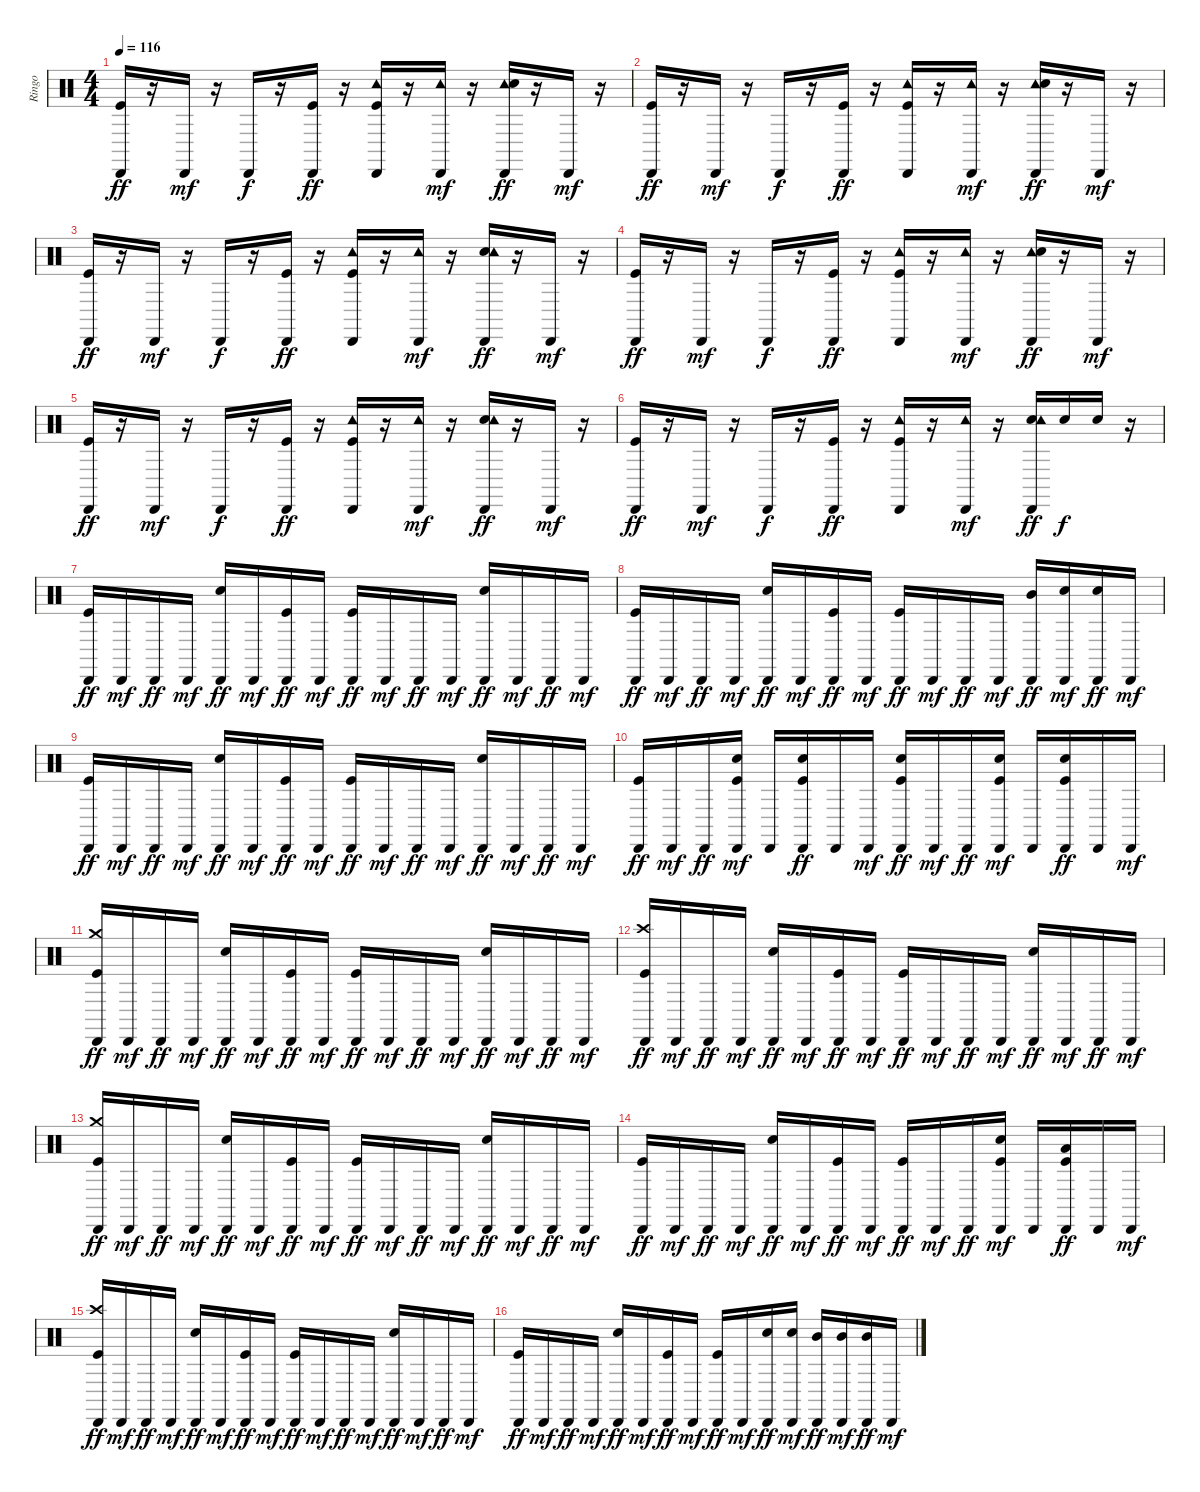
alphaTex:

\track ("Ringo" "Ringo") {instrument percussion}
\staff {score}
\articulation defaults
\ts (4 4)
\tempo 116
\clef neutral
\ks c
("Cabasa (hit)" "Kick (hit)").16{dy ff} r.16 "Cabasa (hit)".16{dy mf} r.16 "Cabasa (hit)".16{dy f} r.16 ("Cabasa (hit)" "Kick (hit)").16{dy ff} r.16 ("Cabasa (hit)" "Kick (hit)" "Tambourine (hit)").16 r.16 ("Cabasa (hit)" "Tambourine (hit)").16{dy mf} r.16 ("Cabasa (hit)" "Tambourine (hit)" "Snare (hit) 2").16{dy ff} r.16 "Cabasa (hit)".16{dy mf} r.16 |
("Cabasa (hit)" "Kick (hit)").16{dy ff} r.16 "Cabasa (hit)".16{dy mf} r.16 "Cabasa (hit)".16{dy f} r.16 ("Cabasa (hit)" "Kick (hit)").16{dy ff} r.16 ("Cabasa (hit)" "Kick (hit)" "Tambourine (hit)").16 r.16 ("Cabasa (hit)" "Tambourine (hit)").16{dy mf} r.16 ("Cabasa (hit)" "Tambourine (hit)" "Snare (hit) 2").16{dy ff} r.16 "Cabasa (hit)".16{dy mf} r.16 |
("Cabasa (hit)" "Kick (hit)").16{dy ff} r.16 "Cabasa (hit)".16{dy mf} r.16 "Cabasa (hit)".16{dy f} r.16 ("Cabasa (hit)" "Kick (hit)").16{dy ff} r.16 ("Cabasa (hit)" "Kick (hit)" "Tambourine (hit)").16 r.16 ("Cabasa (hit)" "Tambourine (hit)").16{dy mf} r.16 ("Cabasa (hit)" "Snare (hit) 2" "Tambourine (hit)").16{dy ff} r.16 "Cabasa (hit)".16{dy mf} r.16 |
("Cabasa (hit)" "Kick (hit)").16{dy ff} r.16 "Cabasa (hit)".16{dy mf} r.16 "Cabasa (hit)".16{dy f} r.16 ("Cabasa (hit)" "Kick (hit)").16{dy ff} r.16 ("Cabasa (hit)" "Tambourine (hit)" "Kick (hit)").16 r.16 ("Cabasa (hit)" "Tambourine (hit)").16{dy mf} r.16 ("Cabasa (hit)" "Tambourine (hit)" "Snare (hit) 2").16{dy ff} r.16 "Cabasa (hit)".16{dy mf} r.16 |
("Cabasa (hit)" "Kick (hit)").16{dy ff} r.16 "Cabasa (hit)".16{dy mf} r.16 "Cabasa (hit)".16{dy f} r.16 ("Cabasa (hit)" "Kick (hit)").16{dy ff} r.16 ("Cabasa (hit)" "Tambourine (hit)" "Kick (hit)").16 r.16 ("Cabasa (hit)" "Tambourine (hit)").16{dy mf} r.16 ("Cabasa (hit)" "Snare (hit) 2" "Tambourine (hit)").16{dy ff} r.16 "Cabasa (hit)".16{dy mf} r.16 |
("Cabasa (hit)" "Kick (hit)").16{dy ff} r.16 "Cabasa (hit)".16{dy mf} r.16 "Cabasa (hit)".16{dy f} r.16 ("Cabasa (hit)" "Kick (hit)").16{dy ff} r.16 ("Cabasa (hit)" "Tambourine (hit)" "Kick (hit)").16 r.16 ("Cabasa (hit)" "Tambourine (hit)").16{dy mf} r.16 ("Cabasa (hit)" "Snare (hit) 2" "Tambourine (hit)").16{dy ff} "Snare (hit) 2".16{dy f} "Snare (hit) 2".16 r.16 |
("Cabasa (hit)" "Kick (hit)").16{dy ff} "Cabasa (hit)".16{dy mf} "Cabasa (hit)".16{dy ff} "Cabasa (hit)".16{dy mf} ("Cabasa (hit)" "Snare (hit) 2").16{dy ff} "Cabasa (hit)".16{dy mf} ("Cabasa (hit)" "Kick (hit)").16{dy ff} "Cabasa (hit)".16{dy mf} ("Cabasa (hit)" "Kick (hit)").16{dy ff} "Cabasa (hit)".16{dy mf} "Cabasa (hit)".16{dy ff} "Cabasa (hit)".16{dy mf} ("Cabasa (hit)" "Snare (hit) 2").16{dy ff} "Cabasa (hit)".16{dy mf} "Cabasa (hit)".16{dy ff} "Cabasa (hit)".16{dy mf} |
("Cabasa (hit)" "Kick (hit)").16{dy ff} "Cabasa (hit)".16{dy mf} "Cabasa (hit)".16{dy ff} "Cabasa (hit)".16{dy mf} ("Cabasa (hit)" "Snare (hit) 2").16{dy ff} "Cabasa (hit)".16{dy mf} ("Cabasa (hit)" "Kick (hit)").16{dy ff} "Cabasa (hit)".16{dy mf} ("Cabasa (hit)" "Kick (hit)").16{dy ff} "Cabasa (hit)".16{dy mf} "Cabasa (hit)".16{dy ff} "Cabasa (hit)".16{dy mf} ("Cabasa (hit)" "Mid Tom (hit)").16{dy ff} ("Cabasa (hit)" "Snare (hit) 2").16{dy mf} ("Cabasa (hit)" "Snare (hit) 2").16{dy ff} "Cabasa (hit)".16{dy mf} |
("Cabasa (hit)" "Kick (hit)").16{dy ff} "Cabasa (hit)".16{dy mf} "Cabasa (hit)".16{dy ff} "Cabasa (hit)".16{dy mf} ("Cabasa (hit)" "Snare (hit) 2").16{dy ff} "Cabasa (hit)".16{dy mf} ("Cabasa (hit)" "Kick (hit)").16{dy ff} "Cabasa (hit)".16{dy mf} ("Cabasa (hit)" "Kick (hit)").16{dy ff} "Cabasa (hit)".16{dy mf} "Cabasa (hit)".16{dy ff} "Cabasa (hit)".16{dy mf} ("Cabasa (hit)" "Snare (hit) 2").16{dy ff} "Cabasa (hit)".16{dy mf} "Cabasa (hit)".16{dy ff} "Cabasa (hit)".16{dy mf} |
("Cabasa (hit)" "Kick (hit)").16{dy ff} "Cabasa (hit)".16{dy mf} "Cabasa (hit)".16{dy ff} ("Kick (hit)" "Snare (hit) 2" "Cabasa (hit)").16{dy mf} "Cabasa (hit)".16 ("Cabasa (hit)" "Kick (hit)" "Snare (hit) 2").16{dy ff} "Cabasa (hit)".16 "Cabasa (hit)".16{dy mf} ("Cabasa (hit)" "Snare (hit) 2" "Kick (hit)").16{dy ff} "Cabasa (hit)".16{dy mf} "Cabasa (hit)".16{dy ff} ("Kick (hit)" "Snare (hit) 2" "Cabasa (hit)").16{dy mf} "Cabasa (hit)".16 ("Cabasa (hit)" "Kick (hit)" "Snare (hit) 2").16{dy ff} "Cabasa (hit)".16 "Cabasa (hit)".16{dy mf} |
("Cabasa (hit)" "Kick (hit)" "Crash medium (hit)").16{dy ff} "Cabasa (hit)".16{dy mf} "Cabasa (hit)".16{dy ff} "Cabasa (hit)".16{dy mf} ("Cabasa (hit)" "Snare (hit) 2").16{dy ff} "Cabasa (hit)".16{dy mf} ("Cabasa (hit)" "Kick (hit)").16{dy ff} "Cabasa (hit)".16{dy mf} ("Cabasa (hit)" "Kick (hit)").16{dy ff} "Cabasa (hit)".16{dy mf} "Cabasa (hit)".16{dy ff} "Cabasa (hit)".16{dy mf} ("Cabasa (hit)" "Snare (hit) 2").16{dy ff} "Cabasa (hit)".16{dy mf} "Cabasa (hit)".16{dy ff} "Cabasa (hit)".16{dy mf} |
("Cabasa (hit)" "Crash high (hit)" "Kick (hit)").16{dy ff} "Cabasa (hit)".16{dy mf} "Cabasa (hit)".16{dy ff} "Cabasa (hit)".16{dy mf} ("Cabasa (hit)" "Snare (hit) 2").16{dy ff} "Cabasa (hit)".16{dy mf} ("Cabasa (hit)" "Kick (hit)").16{dy ff} "Cabasa (hit)".16{dy mf} ("Cabasa (hit)" "Kick (hit)").16{dy ff} "Cabasa (hit)".16{dy mf} "Cabasa (hit)".16{dy ff} "Cabasa (hit)".16{dy mf} ("Cabasa (hit)" "Snare (hit) 2").16{dy ff} "Cabasa (hit)".16{dy mf} "Cabasa (hit)".16{dy ff} "Cabasa (hit)".16{dy mf} |
("Cabasa (hit)" "Crash medium (hit)" "Kick (hit)").16{dy ff} "Cabasa (hit)".16{dy mf} "Cabasa (hit)".16{dy ff} "Cabasa (hit)".16{dy mf} ("Cabasa (hit)" "Snare (hit) 2").16{dy ff} "Cabasa (hit)".16{dy mf} ("Cabasa (hit)" "Kick (hit)").16{dy ff} "Cabasa (hit)".16{dy mf} ("Cabasa (hit)" "Kick (hit)").16{dy ff} "Cabasa (hit)".16{dy mf} "Cabasa (hit)".16{dy ff} "Cabasa (hit)".16{dy mf} ("Cabasa (hit)" "Snare (hit) 2").16{dy ff} "Cabasa (hit)".16{dy mf} "Cabasa (hit)".16{dy ff} "Cabasa (hit)".16{dy mf} |
("Cabasa (hit)" "Kick (hit)").16{dy ff} "Cabasa (hit)".16{dy mf} "Cabasa (hit)".16{dy ff} "Cabasa (hit)".16{dy mf} ("Cabasa (hit)" "Snare (hit) 2").16{dy ff} "Cabasa (hit)".16{dy mf} ("Cabasa (hit)" "Kick (hit)").16{dy ff} "Cabasa (hit)".16{dy mf} ("Cabasa (hit)" "Kick (hit)").16{dy ff} "Cabasa (hit)".16{dy mf} "Cabasa (hit)".16{dy ff} ("Kick (hit)" "Snare (hit) 2" "Cabasa (hit)").16{dy mf} "Cabasa (hit)".16 ("Cabasa (hit)" "Kick (hit)" "Low Tom (hit)").16{dy ff} "Cabasa (hit)".16 "Cabasa (hit)".16{dy mf} |
("Cabasa (hit)" "Kick (hit)" "Crash high (hit)").16{dy ff} "Cabasa (hit)".16{dy mf} "Cabasa (hit)".16{dy ff} "Cabasa (hit)".16{dy mf} ("Cabasa (hit)" "Snare (hit) 2").16{dy ff} "Cabasa (hit)".16{dy mf} ("Cabasa (hit)" "Kick (hit)").16{dy ff} "Cabasa (hit)".16{dy mf} ("Cabasa (hit)" "Kick (hit)").16{dy ff} "Cabasa (hit)".16{dy mf} "Cabasa (hit)".16{dy ff} "Cabasa (hit)".16{dy mf} ("Cabasa (hit)" "Snare (hit) 2").16{dy ff} "Cabasa (hit)".16{dy mf} "Cabasa (hit)".16{dy ff} "Cabasa (hit)".16{dy mf} |
("Cabasa (hit)" "Kick (hit)").16{dy ff} "Cabasa (hit)".16{dy mf} "Cabasa (hit)".16{dy ff} "Cabasa (hit)".16{dy mf} ("Cabasa (hit)" "Snare (hit) 2").16{dy ff} "Cabasa (hit)".16{dy mf} ("Cabasa (hit)" "Kick (hit)").16{dy ff} "Cabasa (hit)".16{dy mf} ("Cabasa (hit)" "Kick (hit)").16{dy ff} "Cabasa (hit)".16{dy mf} ("Cabasa (hit)" "Snare (hit) 2").16{dy ff} ("Cabasa (hit)" "Snare (hit) 2").16{dy mf} ("Cabasa (hit)" "Mid Tom (hit)").16{dy ff} ("Cabasa (hit)" "Mid Tom (hit)").16{dy mf} ("Cabasa (hit)" "Mid Tom (hit)").16{dy ff} "Cabasa (hit)".16{dy mf}
